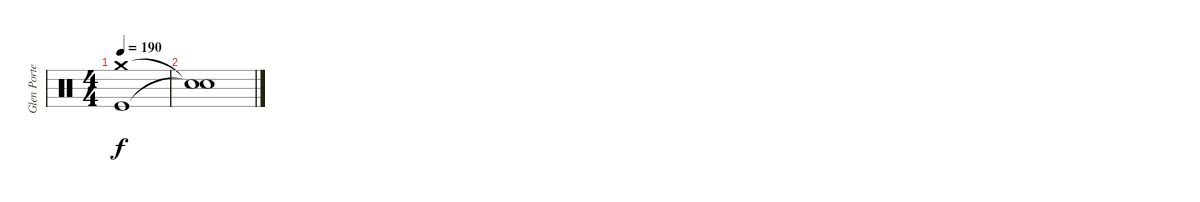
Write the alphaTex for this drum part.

\track ("Glen Porter" "Glen Porte") {instrument percussion}
\staff {score}
\articulation defaults
\ts (4 4)
\tempo 190
\clef neutral
\ks c
("Crash medium (hit)" "Kick (hit)").1{dy f} |
("Snare (hit)"{t} "Snare (hit)"{t}).1
